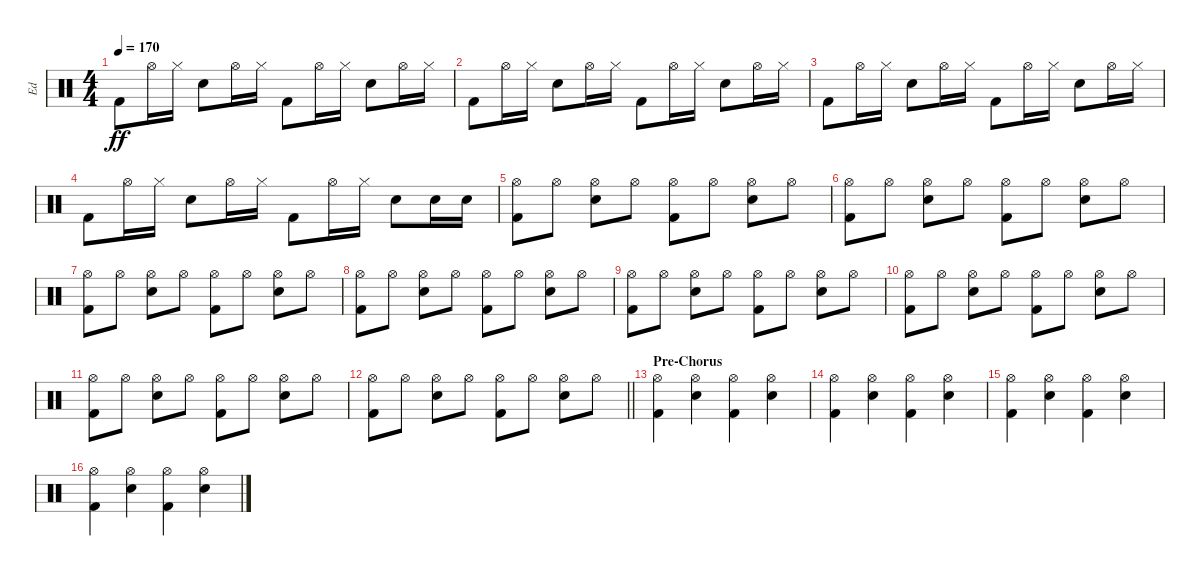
\track ("Ed" "Ed") {instrument percussion}
\staff {score}
\articulation defaults
\ts (4 4)
\tempo 170
\clef neutral
\ks c "Kick (hit) 2".8{dy ff} "Hi-Hat (open)".16 "Hi-Hat (closed)".16 "Snare (hit) 2".8 "Hi-Hat (open)".16 "Hi-Hat (closed)".16 "Kick (hit) 2".8 "Hi-Hat (open)".16 "Hi-Hat (closed)".16 "Snare (hit) 2".8 "Hi-Hat (open)".16 "Hi-Hat (closed)".16
|
"Kick (hit) 2".8 "Hi-Hat (open)".16 "Hi-Hat (closed)".16 "Snare (hit) 2".8 "Hi-Hat (open)".16 "Hi-Hat (closed)".16 "Kick (hit) 2".8 "Hi-Hat (open)".16 "Hi-Hat (closed)".16 "Snare (hit) 2".8 "Hi-Hat (open)".16 "Hi-Hat (closed)".16 |
"Kick (hit) 2".8 "Hi-Hat (open)".16 "Hi-Hat (closed)".16 "Snare (hit) 2".8 "Hi-Hat (open)".16 "Hi-Hat (closed)".16 "Kick (hit) 2".8 "Hi-Hat (open)".16 "Hi-Hat (closed)".16 "Snare (hit) 2".8 "Hi-Hat (open)".16 "Hi-Hat (closed)".16 |
"Kick (hit) 2".8 "Hi-Hat (open)".16 "Hi-Hat (closed)".16 "Snare (hit) 2".8 "Hi-Hat (open)".16 "Hi-Hat (closed)".16 "Kick (hit) 2".8 "Hi-Hat (open)".16 "Hi-Hat (closed)".16 "Snare (hit) 2".8 "Snare (hit) 2".16 "Snare (hit) 2".16 |
("Hi-Hat (open)" "Kick (hit) 2").8 "Hi-Hat (open)".8 ("Hi-Hat (open)" "Snare (hit) 2").8 "Hi-Hat (open)".8 ("Hi-Hat (open)" "Kick (hit) 2").8 "Hi-Hat (open)".8 ("Hi-Hat (open)" "Snare (hit) 2").8 "Hi-Hat (open)".8 |
("Hi-Hat (open)" "Kick (hit) 2").8 "Hi-Hat (open)".8 ("Hi-Hat (open)" "Snare (hit) 2").8 "Hi-Hat (open)".8 ("Hi-Hat (open)" "Kick (hit) 2").8 "Hi-Hat (open)".8 ("Hi-Hat (open)" "Snare (hit) 2").8 "Hi-Hat (open)".8 |
("Hi-Hat (open)" "Kick (hit) 2").8 "Hi-Hat (open)".8 ("Hi-Hat (open)" "Snare (hit) 2").8 "Hi-Hat (open)".8 ("Hi-Hat (open)" "Kick (hit) 2").8 "Hi-Hat (open)".8 ("Hi-Hat (open)" "Snare (hit) 2").8 "Hi-Hat (open)".8 |
("Hi-Hat (open)" "Kick (hit) 2").8 "Hi-Hat (open)".8 ("Hi-Hat (open)" "Snare (hit) 2").8 "Hi-Hat (open)".8 ("Hi-Hat (open)" "Kick (hit) 2").8 "Hi-Hat (open)".8 ("Hi-Hat (open)" "Snare (hit) 2").8 "Hi-Hat (open)".8 |
("Hi-Hat (open)" "Kick (hit) 2").8 "Hi-Hat (open)".8 ("Hi-Hat (open)" "Snare (hit) 2").8 "Hi-Hat (open)".8 ("Hi-Hat (open)" "Kick (hit) 2").8 "Hi-Hat (open)".8 ("Hi-Hat (open)" "Snare (hit) 2").8 "Hi-Hat (open)".8 |
("Hi-Hat (open)" "Kick (hit) 2").8 "Hi-Hat (open)".8 ("Hi-Hat (open)" "Snare (hit) 2").8 "Hi-Hat (open)".8 ("Hi-Hat (open)" "Kick (hit) 2").8 "Hi-Hat (open)".8 ("Hi-Hat (open)" "Snare (hit) 2").8 "Hi-Hat (open)".8 |
("Hi-Hat (open)" "Kick (hit) 2").8 "Hi-Hat (open)".8 ("Hi-Hat (open)" "Snare (hit) 2").8 "Hi-Hat (open)".8 ("Hi-Hat (open)" "Kick (hit) 2").8 "Hi-Hat (open)".8 ("Hi-Hat (open)" "Snare (hit) 2").8 "Hi-Hat (open)".8 |
\barLineRight lightlight
("Hi-Hat (open)" "Kick (hit) 2").8 "Hi-Hat (open)".8 ("Hi-Hat (open)" "Snare (hit) 2").8 "Hi-Hat (open)".8 ("Hi-Hat (open)" "Kick (hit) 2").8 "Hi-Hat (open)".8 ("Hi-Hat (open)" "Snare (hit) 2").8 "Hi-Hat (open)".8 |
\section ("" "Pre-Chorus")
("Hi-Hat (open)" "Kick (hit) 2").4 ("Hi-Hat (open)" "Snare (hit) 2").4 ("Hi-Hat (open)" "Kick (hit) 2").4 ("Hi-Hat (open)" "Snare (hit) 2").4 |
("Hi-Hat (open)" "Kick (hit) 2").4 ("Hi-Hat (open)" "Snare (hit) 2").4 ("Hi-Hat (open)" "Kick (hit) 2").4 ("Hi-Hat (open)" "Snare (hit) 2").4 |
("Hi-Hat (open)" "Kick (hit) 2").4 ("Hi-Hat (open)" "Snare (hit) 2").4 ("Hi-Hat (open)" "Kick (hit) 2").4 ("Hi-Hat (open)" "Snare (hit) 2").4 |
("Hi-Hat (open)" "Kick (hit) 2").4 ("Hi-Hat (open)" "Snare (hit) 2").4 ("Hi-Hat (open)" "Kick (hit) 2").4 ("Hi-Hat (open)" "Snare (hit) 2").4
